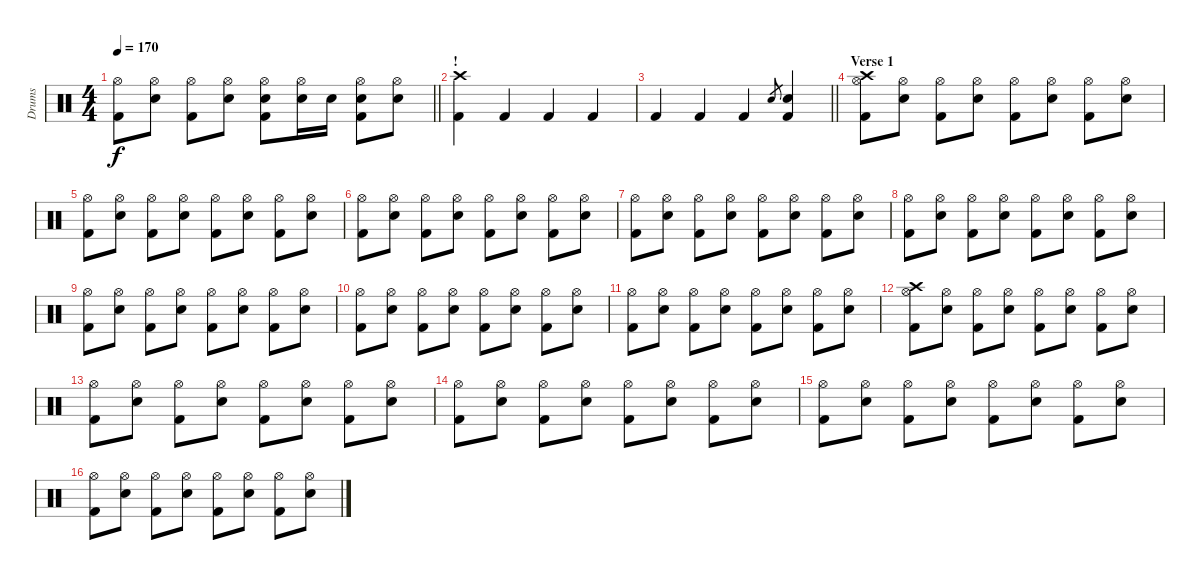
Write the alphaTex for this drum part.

\track ("Drums" "Drums") {instrument percussion}
\staff {score}
\articulation defaults
\ts (4 4)
\tempo 170
\clef neutral
\barLineRight lightlight
\ks c
("Hi-Hat (open)" "Kick (hit) 2").8{dy f} ("Hi-Hat (open)" "Snare (hit) 2").8 ("Hi-Hat (open)" "Kick (hit) 2").8 ("Hi-Hat (open)" "Snare (hit) 2").8 ("Hi-Hat (open)" "Snare (hit) 2" "Kick (hit) 2").8 ("Hi-Hat (open)" "Snare (hit) 2").16 "Snare (hit) 2".16 ("Hi-Hat (open)" "Snare (hit) 2" "Kick (hit) 2").8 ("Hi-Hat (open)" "Snare (hit) 2").8 |
\section ("" "! ")
("Crash high (hit)" "Kick (hit) 2").4 "Kick (hit) 2".4 "Kick (hit) 2".4 "Kick (hit) 2".4 |
\barLineRight lightlight "Kick (hit) 2".4 "Kick (hit) 2".4 "Kick (hit) 2".4 "Snare (hit) 2".8{gr}
("Snare (hit) 2" "Kick (hit) 2").4 |
\section ("" "Verse 1")
("Hi-Hat (open)" "Crash high (hit)" "Kick (hit) 2").8 ("Hi-Hat (open)" "Snare (hit) 2").8 ("Hi-Hat (open)" "Kick (hit) 2").8 ("Hi-Hat (open)" "Snare (hit) 2").8 ("Hi-Hat (open)" "Kick (hit) 2").8 ("Hi-Hat (open)" "Snare (hit) 2").8 ("Hi-Hat (open)" "Kick (hit) 2").8 ("Hi-Hat (open)" "Snare (hit) 2").8 |
("Hi-Hat (open)" "Kick (hit) 2").8 ("Hi-Hat (open)" "Snare (hit) 2").8 ("Hi-Hat (open)" "Kick (hit) 2").8 ("Hi-Hat (open)" "Snare (hit) 2").8 ("Hi-Hat (open)" "Kick (hit) 2").8 ("Hi-Hat (open)" "Snare (hit) 2").8 ("Hi-Hat (open)" "Kick (hit) 2").8 ("Hi-Hat (open)" "Snare (hit) 2").8 |
("Hi-Hat (open)" "Kick (hit) 2").8 ("Hi-Hat (open)" "Snare (hit) 2").8 ("Hi-Hat (open)" "Kick (hit) 2").8 ("Hi-Hat (open)" "Snare (hit) 2").8 ("Hi-Hat (open)" "Kick (hit) 2").8 ("Hi-Hat (open)" "Snare (hit) 2").8 ("Hi-Hat (open)" "Kick (hit) 2").8 ("Hi-Hat (open)" "Snare (hit) 2").8 |
("Hi-Hat (open)" "Kick (hit) 2").8 ("Hi-Hat (open)" "Snare (hit) 2").8 ("Hi-Hat (open)" "Kick (hit) 2").8 ("Hi-Hat (open)" "Snare (hit) 2").8 ("Hi-Hat (open)" "Kick (hit) 2").8 ("Hi-Hat (open)" "Snare (hit) 2").8 ("Hi-Hat (open)" "Kick (hit) 2").8 ("Hi-Hat (open)" "Snare (hit) 2").8 |
("Hi-Hat (open)" "Kick (hit) 2").8 ("Hi-Hat (open)" "Snare (hit) 2").8 ("Hi-Hat (open)" "Kick (hit) 2").8 ("Hi-Hat (open)" "Snare (hit) 2").8 ("Hi-Hat (open)" "Kick (hit) 2").8 ("Hi-Hat (open)" "Snare (hit) 2").8 ("Hi-Hat (open)" "Kick (hit) 2").8 ("Hi-Hat (open)" "Snare (hit) 2").8 |
("Hi-Hat (open)" "Kick (hit) 2").8 ("Hi-Hat (open)" "Snare (hit) 2").8 ("Hi-Hat (open)" "Kick (hit) 2").8 ("Hi-Hat (open)" "Snare (hit) 2").8 ("Hi-Hat (open)" "Kick (hit) 2").8 ("Hi-Hat (open)" "Snare (hit) 2").8 ("Hi-Hat (open)" "Kick (hit) 2").8 ("Hi-Hat (open)" "Snare (hit) 2").8 |
("Hi-Hat (open)" "Kick (hit) 2").8 ("Hi-Hat (open)" "Snare (hit) 2").8 ("Hi-Hat (open)" "Kick (hit) 2").8 ("Hi-Hat (open)" "Snare (hit) 2").8 ("Hi-Hat (open)" "Kick (hit) 2").8 ("Hi-Hat (open)" "Snare (hit) 2").8 ("Hi-Hat (open)" "Kick (hit) 2").8 ("Hi-Hat (open)" "Snare (hit) 2").8 |
("Hi-Hat (open)" "Kick (hit) 2").8 ("Hi-Hat (open)" "Snare (hit) 2").8 ("Hi-Hat (open)" "Kick (hit) 2").8 ("Hi-Hat (open)" "Snare (hit) 2").8 ("Hi-Hat (open)" "Kick (hit) 2").8 ("Hi-Hat (open)" "Snare (hit) 2").8 ("Hi-Hat (open)" "Kick (hit) 2").8 ("Hi-Hat (open)" "Snare (hit) 2").8 |
("Hi-Hat (open)" "Crash high (hit)" "Kick (hit) 2").8 ("Hi-Hat (open)" "Snare (hit) 2").8 ("Hi-Hat (open)" "Kick (hit) 2").8 ("Hi-Hat (open)" "Snare (hit) 2").8 ("Hi-Hat (open)" "Kick (hit) 2").8 ("Hi-Hat (open)" "Snare (hit) 2").8 ("Hi-Hat (open)" "Kick (hit) 2").8 ("Hi-Hat (open)" "Snare (hit) 2").8 |
("Hi-Hat (open)" "Kick (hit) 2").8 ("Hi-Hat (open)" "Snare (hit) 2").8 ("Hi-Hat (open)" "Kick (hit) 2").8 ("Hi-Hat (open)" "Snare (hit) 2").8 ("Hi-Hat (open)" "Kick (hit) 2").8 ("Hi-Hat (open)" "Snare (hit) 2").8 ("Hi-Hat (open)" "Kick (hit) 2").8 ("Hi-Hat (open)" "Snare (hit) 2").8 |
("Hi-Hat (open)" "Kick (hit) 2").8 ("Hi-Hat (open)" "Snare (hit) 2").8 ("Hi-Hat (open)" "Kick (hit) 2").8 ("Hi-Hat (open)" "Snare (hit) 2").8 ("Hi-Hat (open)" "Kick (hit) 2").8 ("Hi-Hat (open)" "Snare (hit) 2").8 ("Hi-Hat (open)" "Kick (hit) 2").8 ("Hi-Hat (open)" "Snare (hit) 2").8 |
("Hi-Hat (open)" "Kick (hit) 2").8 ("Hi-Hat (open)" "Snare (hit) 2").8 ("Hi-Hat (open)" "Kick (hit) 2").8 ("Hi-Hat (open)" "Snare (hit) 2").8 ("Hi-Hat (open)" "Kick (hit) 2").8 ("Hi-Hat (open)" "Snare (hit) 2").8 ("Hi-Hat (open)" "Kick (hit) 2").8 ("Hi-Hat (open)" "Snare (hit) 2").8 |
("Hi-Hat (open)" "Kick (hit) 2").8 ("Hi-Hat (open)" "Snare (hit) 2").8 ("Hi-Hat (open)" "Kick (hit) 2").8 ("Hi-Hat (open)" "Snare (hit) 2").8 ("Hi-Hat (open)" "Kick (hit) 2").8 ("Hi-Hat (open)" "Snare (hit) 2").8 ("Hi-Hat (open)" "Kick (hit) 2").8 ("Hi-Hat (open)" "Snare (hit) 2").8
